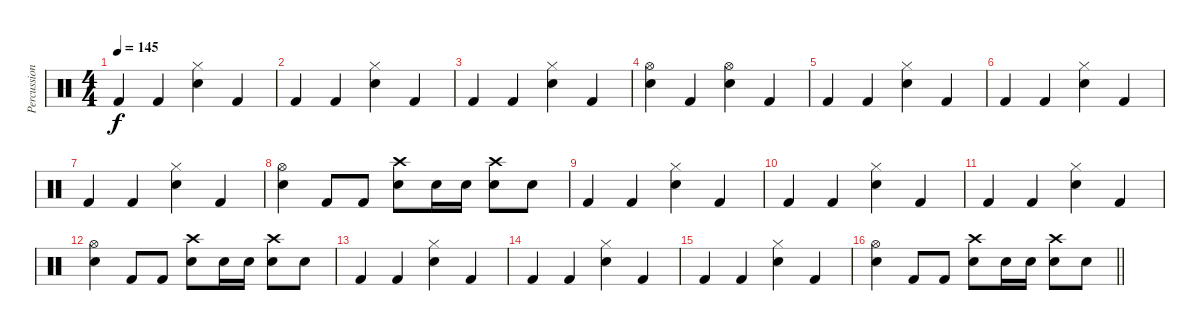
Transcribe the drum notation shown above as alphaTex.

\track ("Percussion" "Percussion") {instrument percussion}
\staff {score}
\articulation defaults
\ts (4 4)
\tempo 145
\clef neutral
\ks c "Kick (hit) 2".4{dy f} "Kick (hit) 2".4
("Hi-Hat (closed)" "Electric Snare (hit)").4 "Kick (hit) 2".4 |
"Kick (hit) 2".4 "Kick (hit) 2".4 ("Hi-Hat (closed)" "Electric Snare (hit)").4 "Kick (hit) 2".4 |
"Kick (hit) 2".4 "Kick (hit) 2".4 ("Hi-Hat (closed)" "Electric Snare (hit)").4 "Kick (hit) 2".4 |
("Hi-Hat (open)" "Electric Snare (hit)").4 "Kick (hit) 2".4 ("Hi-Hat (open)" "Electric Snare (hit)").4 "Kick (hit) 2".4 |
"Kick (hit) 2".4 "Kick (hit) 2".4 ("Hi-Hat (closed)" "Electric Snare (hit)").4 "Kick (hit) 2".4 |
"Kick (hit) 2".4 "Kick (hit) 2".4 ("Hi-Hat (closed)" "Electric Snare (hit)").4 "Kick (hit) 2".4 |
"Kick (hit) 2".4 "Kick (hit) 2".4 ("Hi-Hat (closed)" "Electric Snare (hit)").4 "Kick (hit) 2".4 |
("Hi-Hat (open)" "Electric Snare (hit)").4 "Kick (hit) 2".8 "Kick (hit) 2".8 ("Crash high (hit)" "Electric Snare (hit)").8 "Electric Snare (hit)".16 "Electric Snare (hit)".16 ("Crash high (hit)" "Electric Snare (hit)").8 "Electric Snare (hit)".8 |
"Kick (hit) 2".4 "Kick (hit) 2".4 ("Hi-Hat (closed)" "Electric Snare (hit)").4 "Kick (hit) 2".4 |
"Kick (hit) 2".4 "Kick (hit) 2".4 ("Hi-Hat (closed)" "Electric Snare (hit)").4 "Kick (hit) 2".4 |
"Kick (hit) 2".4 "Kick (hit) 2".4 ("Hi-Hat (closed)" "Electric Snare (hit)").4 "Kick (hit) 2".4 |
("Hi-Hat (open)" "Electric Snare (hit)").4 "Kick (hit) 2".8 "Kick (hit) 2".8 ("Crash high (hit)" "Electric Snare (hit)").8 "Electric Snare (hit)".16 "Electric Snare (hit)".16 ("Crash high (hit)" "Electric Snare (hit)").8 "Electric Snare (hit)".8 |
"Kick (hit) 2".4 "Kick (hit) 2".4 ("Hi-Hat (closed)" "Electric Snare (hit)").4 "Kick (hit) 2".4 |
"Kick (hit) 2".4 "Kick (hit) 2".4 ("Hi-Hat (closed)" "Electric Snare (hit)").4 "Kick (hit) 2".4 |
"Kick (hit) 2".4 "Kick (hit) 2".4 ("Hi-Hat (closed)" "Electric Snare (hit)").4 "Kick (hit) 2".4 |
\barLineRight lightlight
("Hi-Hat (open)" "Electric Snare (hit)").4 "Kick (hit) 2".8 "Kick (hit) 2".8 ("Crash high (hit)" "Electric Snare (hit)").8 "Electric Snare (hit)".16 "Electric Snare (hit)".16 ("Crash high (hit)" "Electric Snare (hit)").8 "Electric Snare (hit)".8
